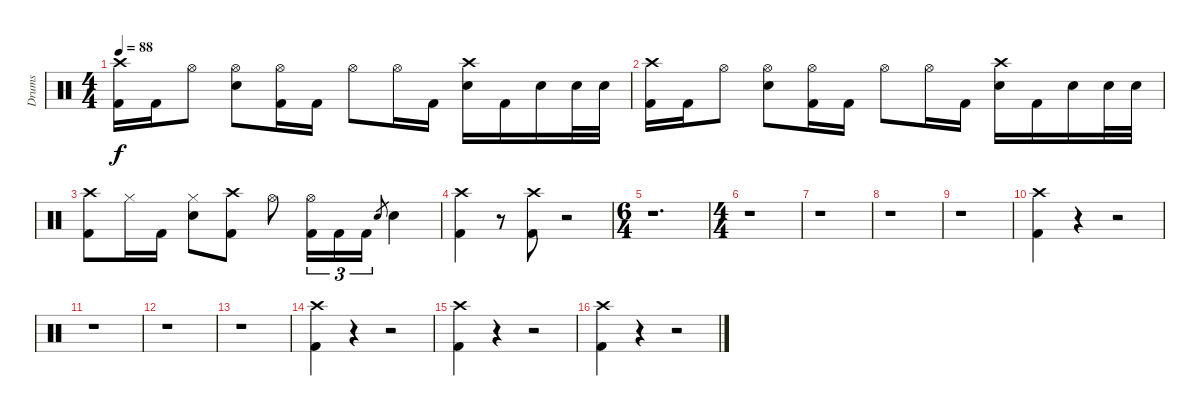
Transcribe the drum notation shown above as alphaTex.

\track ("Drums" "Drums") {instrument percussion}
\staff {score}
\articulation defaults
\ts (4 4)
\tempo 88
\clef neutral
\ks c
("Crash high (hit)" "Kick (hit) 2").16{dy f} "Kick (hit) 2".16 "Hi-Hat (open)".8 ("Hi-Hat (open)" "Snare (hit) 2").8 ("Hi-Hat (open)" "Kick (hit) 2").16 "Kick (hit) 2".16 "Hi-Hat (open)".8 "Hi-Hat (open)".16 "Kick (hit) 2".16 ("Crash high (hit)" "Snare (hit) 2").16 "Kick (hit) 2".16 "Snare (hit) 2".16 "Snare (hit) 2".32 "Snare (hit) 2".32 |
("Crash high (hit)" "Kick (hit) 2").16 "Kick (hit) 2".16 "Hi-Hat (open)".8 ("Hi-Hat (open)" "Snare (hit) 2").8 ("Hi-Hat (open)" "Kick (hit) 2").16 "Kick (hit) 2".16 "Hi-Hat (open)".8 "Hi-Hat (open)".16 "Kick (hit) 2".16 ("Crash high (hit)" "Snare (hit) 2").16 "Kick (hit) 2".16 "Snare (hit) 2".16 "Snare (hit) 2".32 "Snare (hit) 2".32 |
("Crash high (hit)" "Kick (hit) 2").8 "Hi-Hat (closed)".16 "Kick (hit) 2".16 ("Hi-Hat (closed)" "Snare (hit) 2").8 ("Crash high (hit)" "Kick (hit) 2").8 "Hi-Hat (open)".8 ("Hi-Hat (open)" "Kick (hit) 2").16{tu (3 2)} "Kick (hit) 2".16{tu (3 2)} "Kick (hit) 2".16{tu (3 2)} "Snare (hit) 2".8{gr} "Snare (hit) 2".4 |
("Crash high (hit)" "Kick (hit) 2").4 r.8 ("Crash high (hit)" "Kick (hit) 2").8 r.2 |
\ts (6 4)
r.1{d} |
\ts (4 4)
r.1 |
r.1 |
r.1 |
r.1 |
("Crash high (hit)" "Kick (hit) 2").4 r.4 r.2 |
r.1 |
r.1 |
r.1 |
("Crash high (hit)" "Kick (hit) 2").4 r.4 r.2 |
("Crash high (hit)" "Kick (hit) 2").4 r.4 r.2 |
("Crash high (hit)" "Kick (hit) 2").4 r.4 r.2
